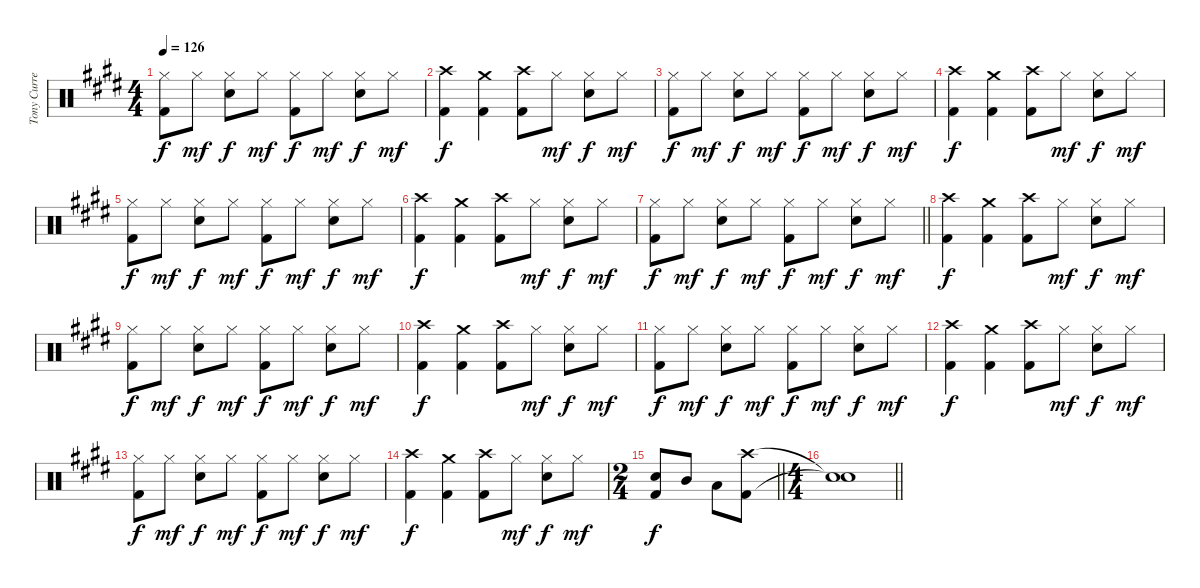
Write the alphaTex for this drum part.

\track ("Tony Currenti" "Tony Curre") {instrument percussion}
\staff {score}
\articulation defaults
\ts (4 4)
\tempo 126
\clef neutral
\ks e
("Hi-Hat (closed)" "Kick (hit) 2").8{dy f} "Hi-Hat (closed)".8{dy mf} ("Hi-Hat (closed)" "Snare (hit) 2").8{dy f} "Hi-Hat (closed)".8{dy mf} ("Hi-Hat (closed)" "Kick (hit) 2").8{dy f} "Hi-Hat (closed)".8{dy mf} ("Hi-Hat (closed)" "Snare (hit) 2").8{dy f} "Hi-Hat (closed)".8{dy mf} |
("Crash high (hit)" "Kick (hit) 2").4{dy f} ("Crash medium (hit)" "Kick (hit) 2").4 ("Crash high (hit)" "Kick (hit) 2").8 "Hi-Hat (closed)".8{dy mf} ("Hi-Hat (closed)" "Snare (hit) 2").8{dy f} "Hi-Hat (closed)".8{dy mf} |
("Hi-Hat (closed)" "Kick (hit) 2").8{dy f} "Hi-Hat (closed)".8{dy mf} ("Hi-Hat (closed)" "Snare (hit) 2").8{dy f} "Hi-Hat (closed)".8{dy mf} ("Hi-Hat (closed)" "Kick (hit) 2").8{dy f} "Hi-Hat (closed)".8{dy mf} ("Hi-Hat (closed)" "Snare (hit) 2").8{dy f} "Hi-Hat (closed)".8{dy mf} |
("Crash high (hit)" "Kick (hit) 2").4{dy f} ("Crash medium (hit)" "Kick (hit) 2").4 ("Crash high (hit)" "Kick (hit) 2").8 "Hi-Hat (closed)".8{dy mf} ("Hi-Hat (closed)" "Snare (hit) 2").8{dy f} "Hi-Hat (closed)".8{dy mf} |
("Hi-Hat (closed)" "Kick (hit) 2").8{dy f} "Hi-Hat (closed)".8{dy mf} ("Hi-Hat (closed)" "Snare (hit) 2").8{dy f} "Hi-Hat (closed)".8{dy mf} ("Hi-Hat (closed)" "Kick (hit) 2").8{dy f} "Hi-Hat (closed)".8{dy mf} ("Hi-Hat (closed)" "Snare (hit) 2").8{dy f} "Hi-Hat (closed)".8{dy mf} |
("Crash high (hit)" "Kick (hit) 2").4{dy f} ("Crash medium (hit)" "Kick (hit) 2").4 ("Crash high (hit)" "Kick (hit) 2").8 "Hi-Hat (closed)".8{dy mf} ("Hi-Hat (closed)" "Snare (hit) 2").8{dy f} "Hi-Hat (closed)".8{dy mf} |
\barLineRight lightlight
("Hi-Hat (closed)" "Kick (hit) 2").8{dy f} "Hi-Hat (closed)".8{dy mf} ("Hi-Hat (closed)" "Snare (hit) 2").8{dy f} "Hi-Hat (closed)".8{dy mf} ("Hi-Hat (closed)" "Kick (hit) 2").8{dy f} "Hi-Hat (closed)".8{dy mf} ("Hi-Hat (closed)" "Snare (hit) 2").8{dy f} "Hi-Hat (closed)".8{dy mf} |
("Crash high (hit)" "Kick (hit) 2").4{dy f} ("Crash medium (hit)" "Kick (hit) 2").4 ("Crash high (hit)" "Kick (hit) 2").8 "Hi-Hat (closed)".8{dy mf} ("Hi-Hat (closed)" "Snare (hit) 2").8{dy f} "Hi-Hat (closed)".8{dy mf} |
("Hi-Hat (closed)" "Kick (hit) 2").8{dy f} "Hi-Hat (closed)".8{dy mf} ("Hi-Hat (closed)" "Snare (hit) 2").8{dy f} "Hi-Hat (closed)".8{dy mf} ("Hi-Hat (closed)" "Kick (hit) 2").8{dy f} "Hi-Hat (closed)".8{dy mf} ("Hi-Hat (closed)" "Snare (hit) 2").8{dy f} "Hi-Hat (closed)".8{dy mf} |
("Crash high (hit)" "Kick (hit) 2").4{dy f} ("Crash medium (hit)" "Kick (hit) 2").4 ("Crash high (hit)" "Kick (hit) 2").8 "Hi-Hat (closed)".8{dy mf} ("Hi-Hat (closed)" "Snare (hit) 2").8{dy f} "Hi-Hat (closed)".8{dy mf} |
("Hi-Hat (closed)" "Kick (hit) 2").8{dy f} "Hi-Hat (closed)".8{dy mf} ("Hi-Hat (closed)" "Snare (hit) 2").8{dy f} "Hi-Hat (closed)".8{dy mf} ("Hi-Hat (closed)" "Kick (hit) 2").8{dy f} "Hi-Hat (closed)".8{dy mf} ("Hi-Hat (closed)" "Snare (hit) 2").8{dy f} "Hi-Hat (closed)".8{dy mf} |
("Crash high (hit)" "Kick (hit) 2").4{dy f} ("Crash medium (hit)" "Kick (hit) 2").4 ("Crash high (hit)" "Kick (hit) 2").8 "Hi-Hat (closed)".8{dy mf} ("Hi-Hat (closed)" "Snare (hit) 2").8{dy f} "Hi-Hat (closed)".8{dy mf} |
("Hi-Hat (closed)" "Kick (hit) 2").8{dy f} "Hi-Hat (closed)".8{dy mf} ("Hi-Hat (closed)" "Snare (hit) 2").8{dy f} "Hi-Hat (closed)".8{dy mf} ("Hi-Hat (closed)" "Kick (hit) 2").8{dy f} "Hi-Hat (closed)".8{dy mf} ("Hi-Hat (closed)" "Snare (hit) 2").8{dy f} "Hi-Hat (closed)".8{dy mf} |
("Crash high (hit)" "Kick (hit) 2").4{dy f} ("Crash medium (hit)" "Kick (hit) 2").4 ("Crash high (hit)" "Kick (hit) 2").8 "Hi-Hat (closed)".8{dy mf} ("Hi-Hat (closed)" "Snare (hit) 2").8{dy f} "Hi-Hat (closed)".8{dy mf} |
\ts (2 4)
\barLineRight lightlight
("Snare (hit) 2" "Kick (hit) 2").8{dy f} "Mid Tom (hit)".8 "Low Tom (hit)".8 ("Crash high (hit)" "Kick (hit) 2").8 |
\ts (4 4)
\section ("" "")
\barLineRight lightlight
("Snare (hit)"{t} "Snare (hit)"{t}).1
